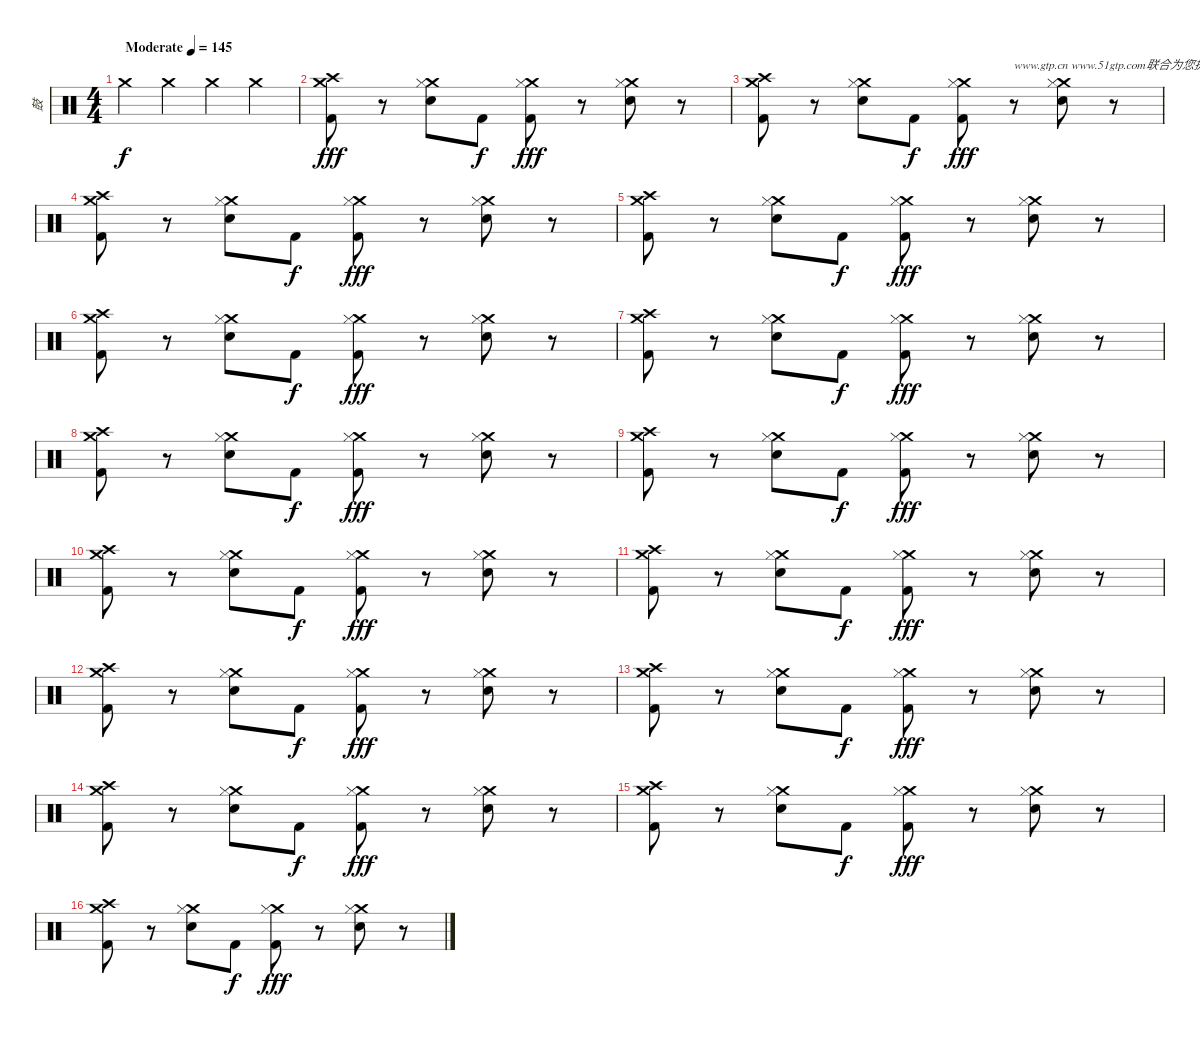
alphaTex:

\track ("鼓" "鼓") {instrument percussion}
\staff {score}
\articulation defaults
\ts (4 4)
\tempo (145 "Moderate")
\clef neutral
\ks c "Crash medium (hit)".4{dy f} "Crash medium (hit)".4 "Crash medium (hit)".4 "Crash medium (hit)".4
|
("Kick (hit) 2" "Crash medium (hit)" "Crash high (hit)").8{dy fff} r.8 ("Snare (hit) 2" "Crash medium (hit)" "Hi-Hat (closed)").8 "Kick (hit) 2".8{dy f} ("Kick (hit) 2" "Crash medium (hit)" "Hi-Hat (closed)").8{dy fff} r.8 ("Snare (hit) 2" "Crash medium (hit)" "Hi-Hat (closed)").8 r.8 |
("Kick (hit) 2" "Crash medium (hit)" "Crash high (hit)").8 r.8 ("Snare (hit) 2" "Crash medium (hit)" "Hi-Hat (closed)").8 "Kick (hit) 2".8{dy f} ("Kick (hit) 2" "Crash medium (hit)" "Hi-Hat (closed)").8{dy fff} r.8{txt "www.gtp.cn www.51gtp.com联合为您提供优秀的GTP!"} ("Snare (hit) 2" "Crash medium (hit)" "Hi-Hat (closed)").8 r.8 |
("Kick (hit) 2" "Crash medium (hit)" "Crash high (hit)").8 r.8 ("Snare (hit) 2" "Crash medium (hit)" "Hi-Hat (closed)").8 "Kick (hit) 2".8{dy f} ("Kick (hit) 2" "Crash medium (hit)" "Hi-Hat (closed)").8{dy fff} r.8 ("Snare (hit) 2" "Crash medium (hit)" "Hi-Hat (closed)").8 r.8 |
("Kick (hit) 2" "Crash medium (hit)" "Crash high (hit)").8 r.8 ("Snare (hit) 2" "Crash medium (hit)" "Hi-Hat (closed)").8 "Kick (hit) 2".8{dy f} ("Kick (hit) 2" "Crash medium (hit)" "Hi-Hat (closed)").8{dy fff} r.8 ("Snare (hit) 2" "Crash medium (hit)" "Hi-Hat (closed)").8 r.8 |
("Kick (hit) 2" "Crash medium (hit)" "Crash high (hit)").8 r.8 ("Snare (hit) 2" "Crash medium (hit)" "Hi-Hat (closed)").8 "Kick (hit) 2".8{dy f} ("Kick (hit) 2" "Crash medium (hit)" "Hi-Hat (closed)").8{dy fff} r.8 ("Snare (hit) 2" "Crash medium (hit)" "Hi-Hat (closed)").8 r.8 |
("Kick (hit) 2" "Crash medium (hit)" "Crash high (hit)").8 r.8 ("Snare (hit) 2" "Crash medium (hit)" "Hi-Hat (closed)").8 "Kick (hit) 2".8{dy f} ("Kick (hit) 2" "Crash medium (hit)" "Hi-Hat (closed)").8{dy fff} r.8 ("Snare (hit) 2" "Crash medium (hit)" "Hi-Hat (closed)").8 r.8 |
("Kick (hit) 2" "Crash medium (hit)" "Crash high (hit)").8 r.8 ("Snare (hit) 2" "Crash medium (hit)" "Hi-Hat (closed)").8 "Kick (hit) 2".8{dy f} ("Kick (hit) 2" "Crash medium (hit)" "Hi-Hat (closed)").8{dy fff} r.8 ("Snare (hit) 2" "Crash medium (hit)" "Hi-Hat (closed)").8 r.8 |
("Kick (hit) 2" "Crash medium (hit)" "Crash high (hit)").8 r.8 ("Snare (hit) 2" "Crash medium (hit)" "Hi-Hat (closed)").8 "Kick (hit) 2".8{dy f} ("Kick (hit) 2" "Crash medium (hit)" "Hi-Hat (closed)").8{dy fff} r.8 ("Snare (hit) 2" "Crash medium (hit)" "Hi-Hat (closed)").8 r.8 |
("Kick (hit) 2" "Crash medium (hit)" "Crash high (hit)").8 r.8 ("Snare (hit) 2" "Crash medium (hit)" "Hi-Hat (closed)").8 "Kick (hit) 2".8{dy f} ("Kick (hit) 2" "Crash medium (hit)" "Hi-Hat (closed)").8{dy fff} r.8 ("Snare (hit) 2" "Crash medium (hit)" "Hi-Hat (closed)").8 r.8 |
("Kick (hit) 2" "Crash medium (hit)" "Crash high (hit)").8 r.8 ("Snare (hit) 2" "Crash medium (hit)" "Hi-Hat (closed)").8 "Kick (hit) 2".8{dy f} ("Kick (hit) 2" "Crash medium (hit)" "Hi-Hat (closed)").8{dy fff} r.8 ("Snare (hit) 2" "Crash medium (hit)" "Hi-Hat (closed)").8 r.8 |
("Kick (hit) 2" "Crash medium (hit)" "Crash high (hit)").8 r.8 ("Snare (hit) 2" "Crash medium (hit)" "Hi-Hat (closed)").8 "Kick (hit) 2".8{dy f} ("Kick (hit) 2" "Crash medium (hit)" "Hi-Hat (closed)").8{dy fff} r.8 ("Snare (hit) 2" "Crash medium (hit)" "Hi-Hat (closed)").8 r.8 |
("Kick (hit) 2" "Crash medium (hit)" "Crash high (hit)").8 r.8 ("Snare (hit) 2" "Crash medium (hit)" "Hi-Hat (closed)").8 "Kick (hit) 2".8{dy f} ("Kick (hit) 2" "Crash medium (hit)" "Hi-Hat (closed)").8{dy fff} r.8 ("Snare (hit) 2" "Crash medium (hit)" "Hi-Hat (closed)").8 r.8 |
("Kick (hit) 2" "Crash medium (hit)" "Crash high (hit)").8 r.8 ("Snare (hit) 2" "Crash medium (hit)" "Hi-Hat (closed)").8 "Kick (hit) 2".8{dy f} ("Kick (hit) 2" "Crash medium (hit)" "Hi-Hat (closed)").8{dy fff} r.8 ("Snare (hit) 2" "Crash medium (hit)" "Hi-Hat (closed)").8 r.8 |
("Kick (hit) 2" "Crash medium (hit)" "Crash high (hit)").8 r.8 ("Snare (hit) 2" "Crash medium (hit)" "Hi-Hat (closed)").8 "Kick (hit) 2".8{dy f} ("Kick (hit) 2" "Crash medium (hit)" "Hi-Hat (closed)").8{dy fff} r.8 ("Snare (hit) 2" "Crash medium (hit)" "Hi-Hat (closed)").8 r.8 |
("Kick (hit) 2" "Crash medium (hit)" "Crash high (hit)").8 r.8 ("Snare (hit) 2" "Crash medium (hit)" "Hi-Hat (closed)").8 "Kick (hit) 2".8{dy f} ("Kick (hit) 2" "Crash medium (hit)" "Hi-Hat (closed)").8{dy fff} r.8 ("Snare (hit) 2" "Crash medium (hit)" "Hi-Hat (closed)").8 r.8
